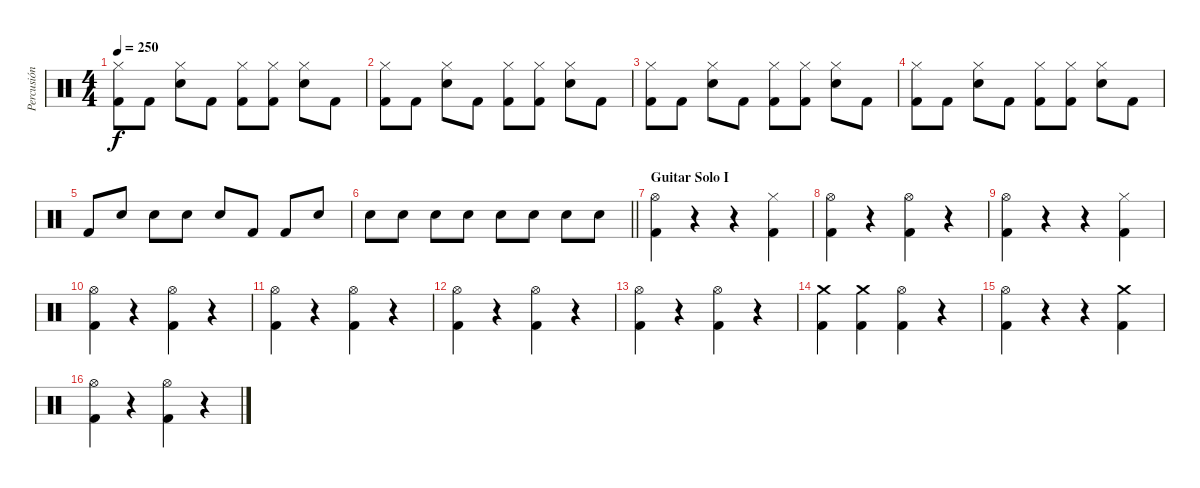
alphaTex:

\track ("Percusión" "Percusión") {instrument percussion}
\staff {score}
\articulation defaults
\ts (4 4)
\tempo 250
\clef neutral
\ks c
("Hi-Hat (closed)" "Kick (hit) 2").8{dy f} "Kick (hit) 2".8 ("Electric Snare (hit)" "Hi-Hat (closed)").8 "Kick (hit) 2".8 ("Hi-Hat (closed)" "Kick (hit) 2").8 ("Hi-Hat (closed)" "Kick (hit) 2").8 ("Electric Snare (hit)" "Hi-Hat (closed)").8 "Kick (hit) 2".8 |
("Hi-Hat (closed)" "Kick (hit) 2").8 "Kick (hit) 2".8 ("Electric Snare (hit)" "Hi-Hat (closed)").8 "Kick (hit) 2".8 ("Hi-Hat (closed)" "Kick (hit) 2").8 ("Hi-Hat (closed)" "Kick (hit) 2").8 ("Electric Snare (hit)" "Hi-Hat (closed)").8 "Kick (hit) 2".8 |
("Hi-Hat (closed)" "Kick (hit) 2").8 "Kick (hit) 2".8 ("Electric Snare (hit)" "Hi-Hat (closed)").8 "Kick (hit) 2".8 ("Hi-Hat (closed)" "Kick (hit) 2").8 ("Hi-Hat (closed)" "Kick (hit) 2").8 ("Electric Snare (hit)" "Hi-Hat (closed)").8 "Kick (hit) 2".8 |
("Hi-Hat (closed)" "Kick (hit) 2").8 "Kick (hit) 2".8 ("Electric Snare (hit)" "Hi-Hat (closed)").8 "Kick (hit) 2".8 ("Hi-Hat (closed)" "Kick (hit) 2").8 ("Hi-Hat (closed)" "Kick (hit) 2").8 ("Electric Snare (hit)" "Hi-Hat (closed)").8 "Kick (hit) 2".8 |
"Kick (hit) 2".8 "Electric Snare (hit)".8 "Electric Snare (hit)".8 "Electric Snare (hit)".8 "Electric Snare (hit)".8 "Kick (hit) 2".8 "Kick (hit) 2".8 "Electric Snare (hit)".8 |
\barLineRight lightlight "Electric Snare (hit)".8 "Electric Snare (hit)".8 "Electric Snare (hit)".8 "Electric Snare (hit)".8 "Electric Snare (hit)".8 "Electric Snare (hit)".8 "Electric Snare (hit)".8 "Electric Snare (hit)".8
|
\section ("" "Guitar Solo I")
("Hi-Hat (open)" "Kick (hit) 2").4 r.4 r.4 ("Hi-Hat (closed)" "Kick (hit) 2").4 |
("Hi-Hat (open)" "Kick (hit) 2").4 r.4 ("Hi-Hat (open)" "Kick (hit) 2").4 r.4 |
("Hi-Hat (open)" "Kick (hit) 2").4 r.4 r.4 ("Hi-Hat (closed)" "Kick (hit) 2").4 |
("Hi-Hat (open)" "Kick (hit) 2").4 r.4 ("Hi-Hat (open)" "Kick (hit) 2").4 r.4 |
("Hi-Hat (open)" "Kick (hit) 2").4 r.4 ("Hi-Hat (open)" "Kick (hit) 2").4 r.4 |
("Hi-Hat (open)" "Kick (hit) 2").4 r.4 ("Hi-Hat (open)" "Kick (hit) 2").4 r.4 |
("Hi-Hat (open)" "Kick (hit) 2").4 r.4 ("Hi-Hat (open)" "Kick (hit) 2").4 r.4 |
("Crash medium (hit)" "Kick (hit) 2").4 ("Crash medium (hit)" "Kick (hit) 2").4 ("Hi-Hat (open)" "Kick (hit) 2").4 r.4 |
("Hi-Hat (open)" "Kick (hit) 2").4 r.4 r.4 ("Crash medium (hit)" "Kick (hit) 2").4 |
("Hi-Hat (open)" "Kick (hit) 2").4 r.4 ("Hi-Hat (open)" "Kick (hit) 2").4 r.4
